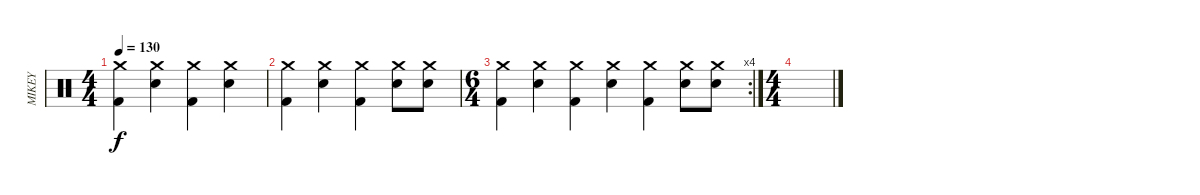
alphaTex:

\track ("MIKEY" "MIKEY") {instrument percussion}
\staff {score}
\articulation defaults
\ts (4 4)
\tempo 130
\clef neutral
\ks c
("Crash medium (hit)" "Kick (hit) 2").4{dy f} ("Crash medium (hit)" "Snare (hit) 2").4 ("Crash medium (hit)" "Kick (hit) 2").4 ("Crash medium (hit)" "Snare (hit) 2").4 |
("Crash medium (hit)" "Kick (hit) 2").4 ("Crash medium (hit)" "Snare (hit) 2").4 ("Crash medium (hit)" "Kick (hit) 2").4 ("Crash medium (hit)" "Snare (hit) 2").8 ("Crash medium (hit)" "Snare (hit) 2").8 |
\rc 4
\ts (6 4)
("Crash medium (hit)" "Kick (hit) 2").4 ("Crash medium (hit)" "Snare (hit) 2").4 ("Crash medium (hit)" "Kick (hit) 2").4 ("Crash medium (hit)" "Snare (hit) 2").4 ("Crash medium (hit)" "Kick (hit) 2").4 ("Crash medium (hit)" "Snare (hit) 2").8 ("Crash medium (hit)" "Snare (hit) 2").8 |
\ts (4 4)
